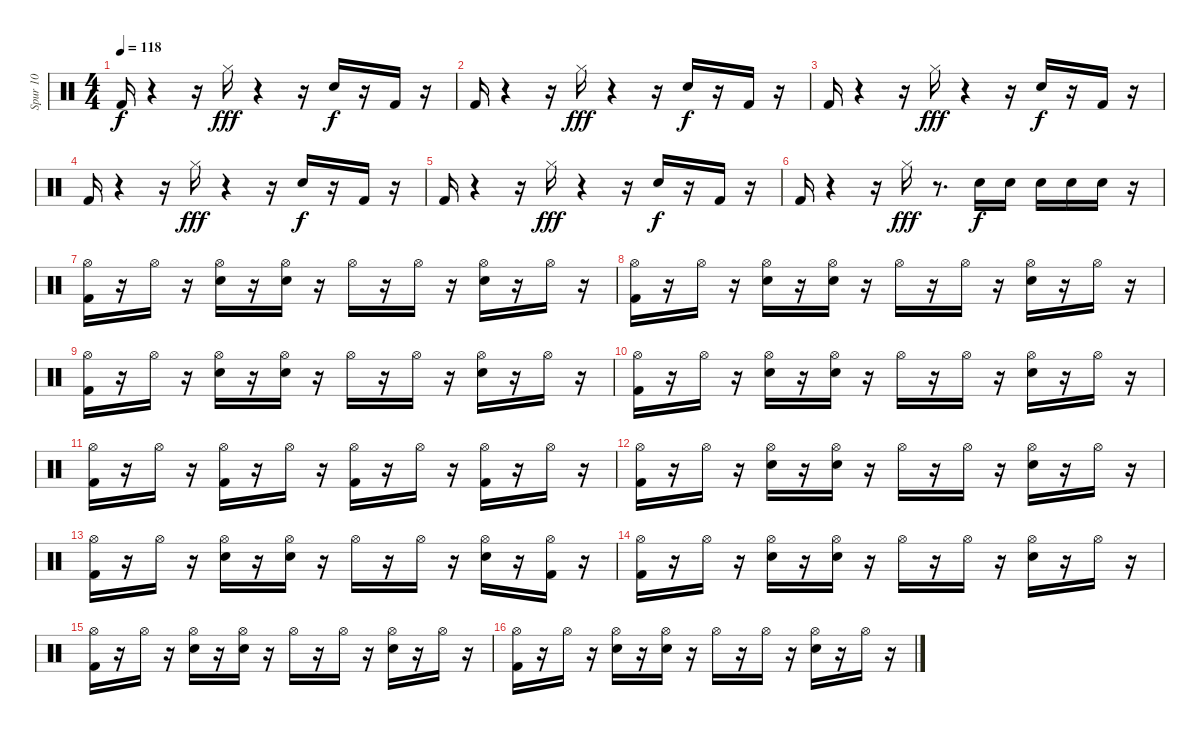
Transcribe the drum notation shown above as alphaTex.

\track ("Spur 10" "Spur 10") {instrument percussion}
\staff {score}
\articulation defaults
\ts (4 4)
\tempo 118
\clef neutral
\ks c "Kick (hit) 2".16{dy f}
r.4 r.16 "Hi-Hat (closed)".16{dy fff} r.4 r.16 "Snare (hit) 2".16{dy f} r.16 "Kick (hit) 2".16 r.16 |
"Kick (hit) 2".16 r.4 r.16 "Hi-Hat (closed)".16{dy fff} r.4 r.16 "Snare (hit) 2".16{dy f} r.16 "Kick (hit) 2".16 r.16 |
"Kick (hit) 2".16 r.4 r.16 "Hi-Hat (closed)".16{dy fff} r.4 r.16 "Snare (hit) 2".16{dy f} r.16 "Kick (hit) 2".16 r.16 |
"Kick (hit) 2".16 r.4 r.16 "Hi-Hat (closed)".16{dy fff} r.4 r.16 "Snare (hit) 2".16{dy f} r.16 "Kick (hit) 2".16 r.16 |
"Kick (hit) 2".16 r.4 r.16 "Hi-Hat (closed)".16{dy fff} r.4 r.16 "Snare (hit) 2".16{dy f} r.16 "Kick (hit) 2".16 r.16 |
"Kick (hit) 2".16 r.4 r.16 "Hi-Hat (closed)".16{dy fff} r.8{d} "Snare (hit) 2".16{dy f} "Snare (hit) 2".16 "Snare (hit) 2".16 "Snare (hit) 2".16 "Snare (hit) 2".16 r.16 |
("Kick (hit) 2" "Hi-Hat (open)").16 r.16 "Hi-Hat (open)".16 r.16 ("Snare (hit) 2" "Hi-Hat (open)").16 r.16 ("Snare (hit) 2" "Hi-Hat (open)").16 r.16 "Hi-Hat (open)".16 r.16 "Hi-Hat (open)".16 r.16 ("Snare (hit) 2" "Hi-Hat (open)").16 r.16 "Hi-Hat (open)".16 r.16 |
("Kick (hit) 2" "Hi-Hat (open)").16 r.16 "Hi-Hat (open)".16 r.16 ("Snare (hit) 2" "Hi-Hat (open)").16 r.16 ("Snare (hit) 2" "Hi-Hat (open)").16 r.16 "Hi-Hat (open)".16 r.16 "Hi-Hat (open)".16 r.16 ("Snare (hit) 2" "Hi-Hat (open)").16 r.16 "Hi-Hat (open)".16 r.16 |
("Kick (hit) 2" "Hi-Hat (open)").16 r.16 "Hi-Hat (open)".16 r.16 ("Snare (hit) 2" "Hi-Hat (open)").16 r.16 ("Snare (hit) 2" "Hi-Hat (open)").16 r.16 "Hi-Hat (open)".16 r.16 "Hi-Hat (open)".16 r.16 ("Snare (hit) 2" "Hi-Hat (open)").16 r.16 "Hi-Hat (open)".16 r.16 |
("Kick (hit) 2" "Hi-Hat (open)").16 r.16 "Hi-Hat (open)".16 r.16 ("Snare (hit) 2" "Hi-Hat (open)").16 r.16 ("Snare (hit) 2" "Hi-Hat (open)").16 r.16 "Hi-Hat (open)".16 r.16 "Hi-Hat (open)".16 r.16 ("Snare (hit) 2" "Hi-Hat (open)").16 r.16 "Hi-Hat (open)".16 r.16 |
("Hi-Hat (open)" "Kick (hit) 2").16 r.16 "Hi-Hat (open)".16 r.16 ("Kick (hit) 2" "Hi-Hat (open)").16 r.16 "Hi-Hat (open)".16 r.16 ("Kick (hit) 2" "Hi-Hat (open)").16 r.16 "Hi-Hat (open)".16 r.16 ("Kick (hit) 2" "Hi-Hat (open)").16 r.16 "Hi-Hat (open)".16 r.16 |
("Kick (hit) 2" "Hi-Hat (open)").16 r.16 "Hi-Hat (open)".16 r.16 ("Snare (hit) 2" "Hi-Hat (open)").16 r.16 ("Snare (hit) 2" "Hi-Hat (open)").16 r.16 "Hi-Hat (open)".16 r.16 "Hi-Hat (open)".16 r.16 ("Snare (hit) 2" "Hi-Hat (open)").16 r.16 "Hi-Hat (open)".16 r.16 |
("Hi-Hat (open)" "Kick (hit) 2").16 r.16 "Hi-Hat (open)".16 r.16 ("Hi-Hat (open)" "Snare (hit) 2").16 r.16 ("Hi-Hat (open)" "Snare (hit) 2").16 r.16 "Hi-Hat (open)".16 r.16 "Hi-Hat (open)".16 r.16 ("Hi-Hat (open)" "Snare (hit) 2").16 r.16 ("Kick (hit) 2" "Hi-Hat (open)").16 r.16 |
("Hi-Hat (open)" "Kick (hit) 2").16 r.16 "Hi-Hat (open)".16 r.16 ("Hi-Hat (open)" "Snare (hit) 2").16 r.16 ("Hi-Hat (open)" "Snare (hit) 2").16 r.16 "Hi-Hat (open)".16 r.16 "Hi-Hat (open)".16 r.16 ("Hi-Hat (open)" "Snare (hit) 2").16 r.16 "Hi-Hat (open)".16 r.16 |
("Hi-Hat (open)" "Kick (hit) 2").16 r.16 "Hi-Hat (open)".16 r.16 ("Hi-Hat (open)" "Snare (hit) 2").16 r.16 ("Hi-Hat (open)" "Snare (hit) 2").16 r.16 "Hi-Hat (open)".16 r.16 "Hi-Hat (open)".16 r.16 ("Hi-Hat (open)" "Snare (hit) 2").16 r.16 "Hi-Hat (open)".16 r.16 |
("Hi-Hat (open)" "Kick (hit) 2").16 r.16 "Hi-Hat (open)".16 r.16 ("Hi-Hat (open)" "Snare (hit) 2").16 r.16 ("Hi-Hat (open)" "Snare (hit) 2").16 r.16 "Hi-Hat (open)".16 r.16 "Hi-Hat (open)".16 r.16 ("Hi-Hat (open)" "Snare (hit) 2").16 r.16 "Hi-Hat (open)".16 r.16
